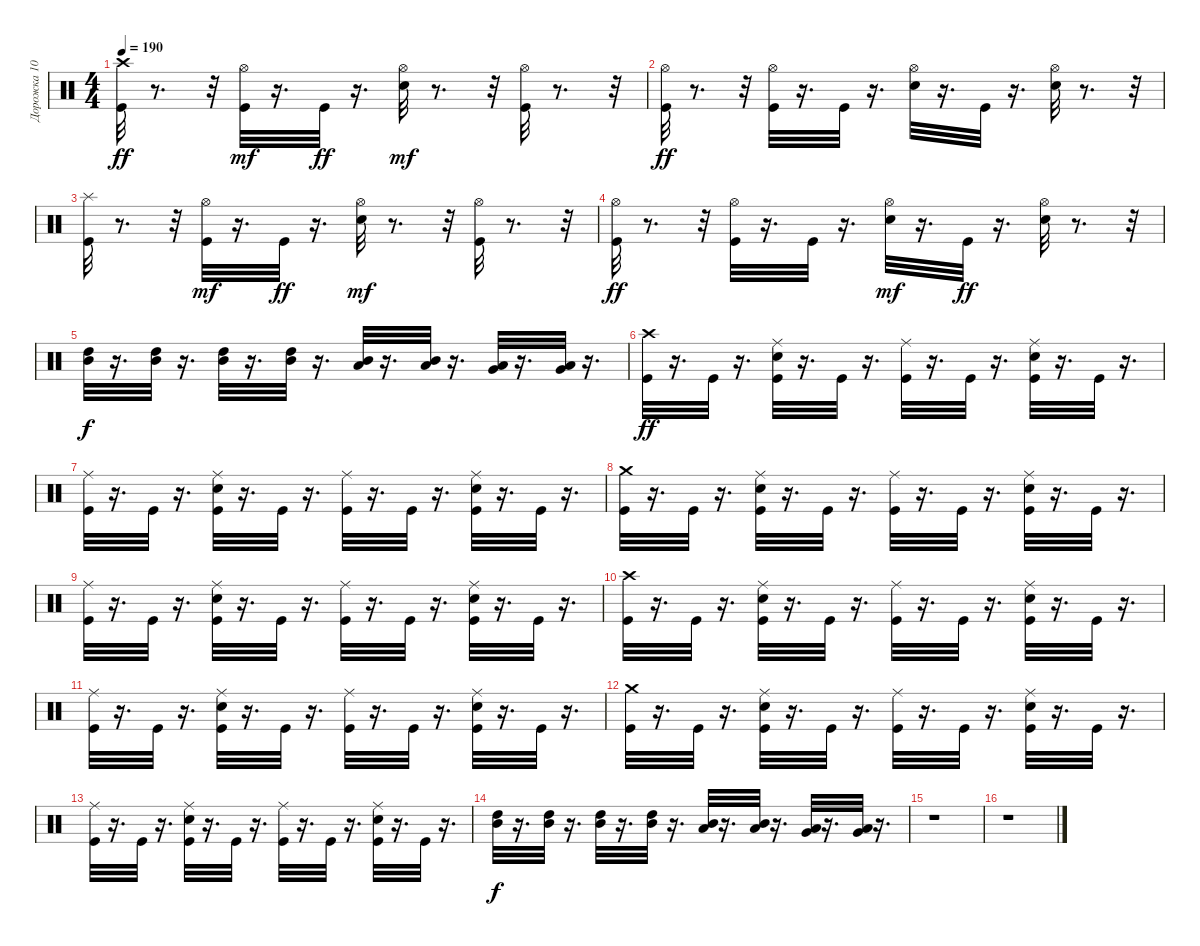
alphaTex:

\track ("Дорожка 10" "Дорожка 10") {instrument percussion}
\staff {score}
\articulation defaults
\ts (4 4)
\tempo 190
\clef neutral
\ks c
("Crash high (hit)" "Kick (hit)").32{dy ff} r.8{d} r.32 ("Kick (hit)" "Hi-Hat (open)").32{dy mf} r.16{d} "Kick (hit)".32{dy ff} r.16{d} ("Snare (hit) 2" "Hi-Hat (open)").32{dy mf} r.8{d} r.32 ("Kick (hit)" "Hi-Hat (open)").32 r.8{d} r.32 |
("Hi-Hat (open)" "Kick (hit)").32{dy ff} r.8{d} r.32 ("Hi-Hat (open)" "Kick (hit)").32 r.16{d} "Kick (hit)".32 r.16{d} ("Hi-Hat (open)" "Snare (hit) 2").32 r.16{d} "Kick (hit)".32 r.16{d} ("Hi-Hat (open)" "Snare (hit) 2").32 r.8{d} r.32 |
("Splash (hit)" "Kick (hit)").32 r.8{d} r.32 ("Kick (hit)" "Hi-Hat (open)").32{dy mf} r.16{d} "Kick (hit)".32{dy ff} r.16{d} ("Snare (hit) 2" "Hi-Hat (open)").32{dy mf} r.8{d} r.32 ("Kick (hit)" "Hi-Hat (open)").32 r.8{d} r.32 |
("Hi-Hat (open)" "Kick (hit)").32{dy ff} r.8{d} r.32 ("Hi-Hat (open)" "Kick (hit)").32 r.16{d} "Kick (hit)".32 r.16{d} ("Snare (hit) 2" "Hi-Hat (open)").32{dy mf} r.16{d} "Kick (hit)".32{dy ff} r.16{d} ("Hi-Hat (open)" "Snare (hit) 2").32 r.8{d} r.32 |
("Mid Tom (hit)" "High Tom (hit)").32{dy f} r.16{d} ("Mid Tom (hit)" "High Tom (hit)").32 r.16{d} ("Mid Tom (hit)" "High Tom (hit)").32 r.16{d} ("Mid Tom (hit)" "High Tom (hit)").32 r.16{d} ("Low Tom (hit)" "Mid Tom (hit)").32 r.16{d} ("Low Tom (hit)" "Mid Tom (hit)").32 r.16{d} ("Very Low Tom (hit)" "Low Tom (hit)").32 r.16{d} ("Very Low Tom (hit)" "Low Tom (hit)").32 r.16{d} |
("Crash high (hit)" "Kick (hit)").32{dy ff} r.16{d} "Kick (hit)".32 r.16{d} ("Kick (hit)" "Snare (hit) 2" "Ride (middle)").32 r.16{d} "Kick (hit)".32 r.16{d} ("Ride (middle)" "Kick (hit)").32 r.16{d} "Kick (hit)".32 r.16{d} ("Ride (middle)" "Kick (hit)" "Snare (hit) 2").32 r.16{d} "Kick (hit)".32 r.16{d} |
("Ride (middle)" "Kick (hit)").32 r.16{d} "Kick (hit)".32 r.16{d} ("Ride (middle)" "Kick (hit)" "Snare (hit) 2").32 r.16{d} "Kick (hit)".32 r.16{d} ("Ride (middle)" "Kick (hit)").32 r.16{d} "Kick (hit)".32 r.16{d} ("Ride (middle)" "Kick (hit)" "Snare (hit) 2").32 r.16{d} "Kick (hit)".32 r.16{d} |
("Kick (hit)" "Crash medium (hit)").32 r.16{d} "Kick (hit)".32 r.16{d} ("Snare (hit) 2" "Kick (hit)" "Ride (middle)").32 r.16{d} "Kick (hit)".32 r.16{d} ("Kick (hit)" "Ride (middle)").32 r.16{d} "Kick (hit)".32 r.16{d} ("Snare (hit) 2" "Kick (hit)" "Ride (middle)").32 r.16{d} "Kick (hit)".32 r.16{d} |
("Kick (hit)" "Ride (middle)").32 r.16{d} "Kick (hit)".32 r.16{d} ("Snare (hit) 2" "Kick (hit)" "Ride (middle)").32 r.16{d} "Kick (hit)".32 r.16{d} ("Kick (hit)" "Ride (middle)").32 r.16{d} "Kick (hit)".32 r.16{d} ("Snare (hit) 2" "Kick (hit)" "Ride (middle)").32 r.16{d} "Kick (hit)".32 r.16{d} |
("Crash high (hit)" "Kick (hit)").32 r.16{d} "Kick (hit)".32 r.16{d} ("Kick (hit)" "Snare (hit) 2" "Ride (middle)").32 r.16{d} "Kick (hit)".32 r.16{d} ("Ride (middle)" "Kick (hit)").32 r.16{d} "Kick (hit)".32 r.16{d} ("Ride (middle)" "Kick (hit)" "Snare (hit) 2").32 r.16{d} "Kick (hit)".32 r.16{d} |
("Ride (middle)" "Kick (hit)").32 r.16{d} "Kick (hit)".32 r.16{d} ("Ride (middle)" "Kick (hit)" "Snare (hit) 2").32 r.16{d} "Kick (hit)".32 r.16{d} ("Ride (middle)" "Kick (hit)").32 r.16{d} "Kick (hit)".32 r.16{d} ("Ride (middle)" "Kick (hit)" "Snare (hit) 2").32 r.16{d} "Kick (hit)".32 r.16{d} |
("Kick (hit)" "Crash medium (hit)").32 r.16{d} "Kick (hit)".32 r.16{d} ("Snare (hit) 2" "Kick (hit)" "Ride (middle)").32 r.16{d} "Kick (hit)".32 r.16{d} ("Kick (hit)" "Ride (middle)").32 r.16{d} "Kick (hit)".32 r.16{d} ("Snare (hit) 2" "Kick (hit)" "Ride (middle)").32 r.16{d} "Kick (hit)".32 r.16{d} |
("Kick (hit)" "Ride (middle)").32 r.16{d} "Kick (hit)".32 r.16{d} ("Snare (hit) 2" "Kick (hit)" "Ride (middle)").32 r.16{d} "Kick (hit)".32 r.16{d} ("Kick (hit)" "Ride (middle)").32 r.16{d} "Kick (hit)".32 r.16{d} ("Snare (hit) 2" "Kick (hit)" "Ride (middle)").32 r.16{d} "Kick (hit)".32 r.16{d} |
("High Tom (hit)" "Mid Tom (hit)").32{dy f} r.16{d} ("Mid Tom (hit)" "High Tom (hit)").32 r.16{d} ("Mid Tom (hit)" "High Tom (hit)").32 r.16{d} ("Mid Tom (hit)" "High Tom (hit)").32 r.16{d} ("Low Tom (hit)" "Mid Tom (hit)").32 r.16{d} ("Low Tom (hit)" "Mid Tom (hit)").32 r.16{d} ("Very Low Tom (hit)" "Low Tom (hit)").32 r.16{d} ("Very Low Tom (hit)" "Low Tom (hit)").32 r.16{d} |
r.1 |
r.1
